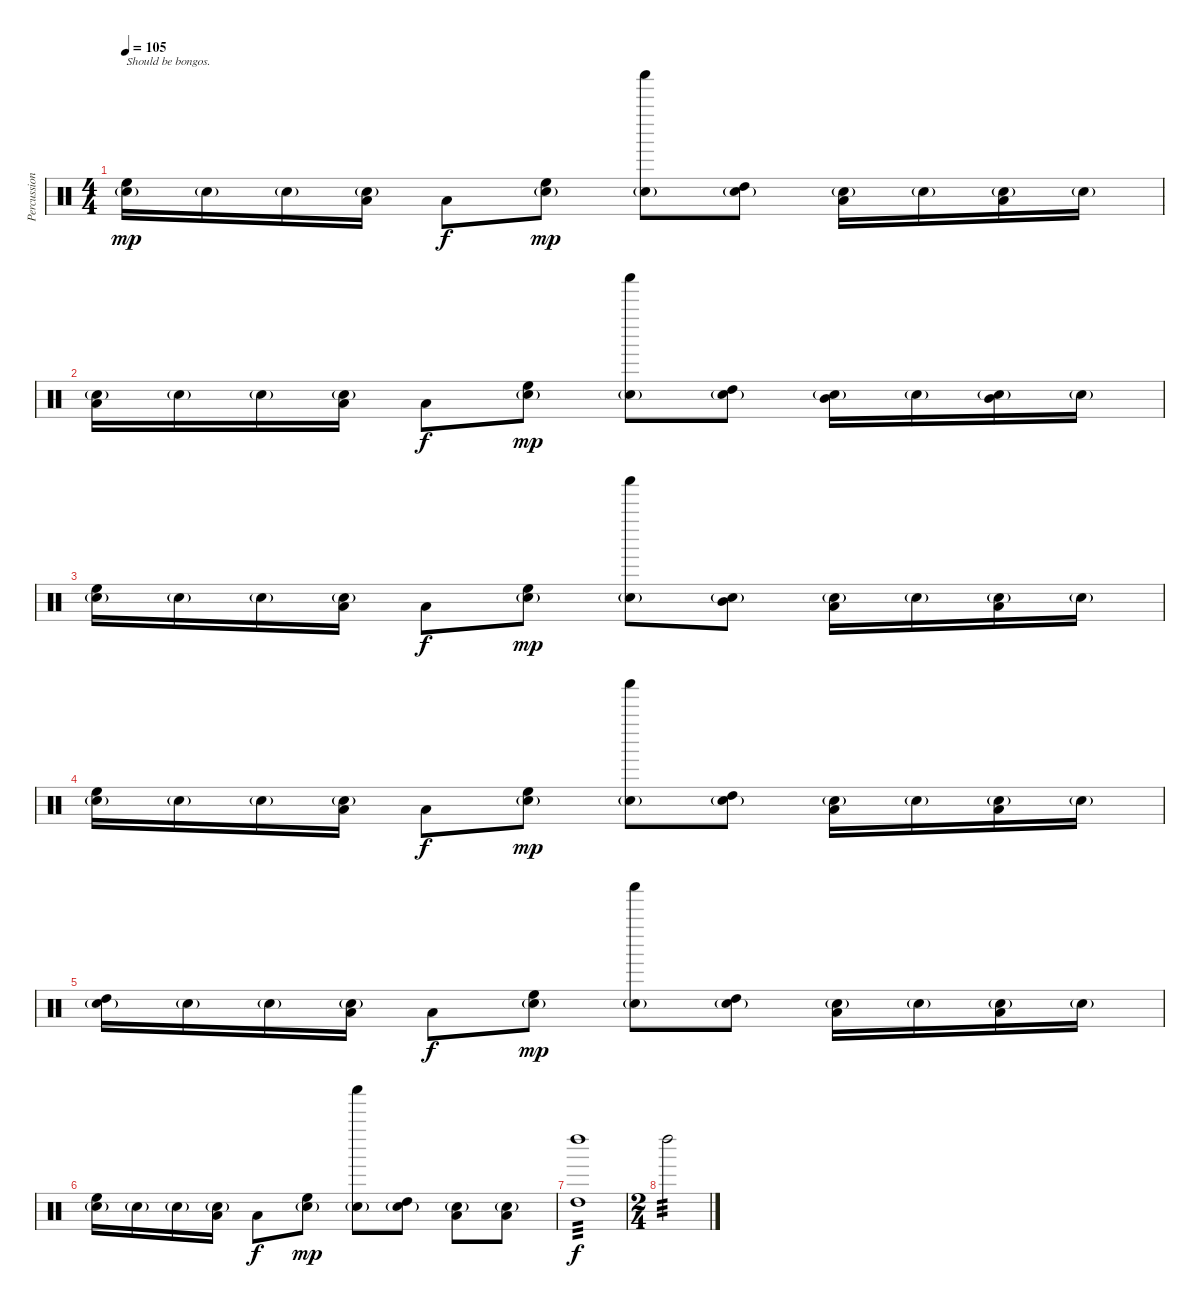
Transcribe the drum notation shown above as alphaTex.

\track ("Percussion" "Percussion") {instrument percussion}
\staff {score}
\articulation defaults
\ts (4 4)
\tempo 105
\clef neutral
\ks c
("Electric Snare (hit)"{g} "High Floor Tom (hit)").16{txt "Should be bongos." dy mp} "Electric Snare (hit)"{g}.16 "Electric Snare (hit)"{g}.16 ("Electric Snare (hit)"{g} "Low Tom (hit)").16 "Low Tom (hit)".8{dy f} ("Electric Snare (hit)"{g} "High Floor Tom (hit)").8{dy mp} ("Electric Snare (hit)"{g} "Shaker (hit)").8 ("Electric Snare (hit)"{g} "High Tom (hit)").8 ("Electric Snare (hit)"{g} "Low Tom (hit)").16 "Electric Snare (hit)"{g}.16 ("Electric Snare (hit)"{g} "Low Tom (hit)").16 "Electric Snare (hit)"{g}.16 |
("Electric Snare (hit)"{g} "Low Tom (hit)").16 "Electric Snare (hit)"{g}.16 "Electric Snare (hit)"{g}.16 ("Electric Snare (hit)"{g} "Low Tom (hit)").16 "Low Tom (hit)".8{dy f} ("Electric Snare (hit)"{g} "High Floor Tom (hit)").8{dy mp} ("Electric Snare (hit)"{g} "Shaker (hit)").8 ("Electric Snare (hit)"{g} "High Tom (hit)").8 ("Electric Snare (hit)"{g} "Mid Tom (hit)").16 "Electric Snare (hit)"{g}.16 ("Electric Snare (hit)"{g} "Mid Tom (hit)").16 "Electric Snare (hit)"{g}.16 |
("Electric Snare (hit)"{g} "High Floor Tom (hit)").16 "Electric Snare (hit)"{g}.16 "Electric Snare (hit)"{g}.16 ("Electric Snare (hit)"{g} "Low Tom (hit)").16 "Low Tom (hit)".8{dy f} ("Electric Snare (hit)"{g} "High Floor Tom (hit)").8{dy mp} ("Electric Snare (hit)"{g} "Shaker (hit)").8 ("Electric Snare (hit)"{g} "Mid Tom (hit)").8 ("Electric Snare (hit)"{g} "Low Tom (hit)").16 "Electric Snare (hit)"{g}.16 ("Electric Snare (hit)"{g} "Low Tom (hit)").16 "Electric Snare (hit)"{g}.16 |
("Electric Snare (hit)"{g} "High Floor Tom (hit)").16 "Electric Snare (hit)"{g}.16 "Electric Snare (hit)"{g}.16 ("Electric Snare (hit)"{g} "Low Tom (hit)").16 "Low Tom (hit)".8{dy f} ("Electric Snare (hit)"{g} "High Floor Tom (hit)").8{dy mp} ("Electric Snare (hit)"{g} "Shaker (hit)").8 ("Electric Snare (hit)"{g} "High Tom (hit)").8 ("Electric Snare (hit)"{g} "Low Tom (hit)").16 "Electric Snare (hit)"{g}.16 ("Electric Snare (hit)"{g} "Low Tom (hit)").16 "Electric Snare (hit)"{g}.16 |
("Electric Snare (hit)"{g} "High Tom (hit)").16 "Electric Snare (hit)"{g}.16 "Electric Snare (hit)"{g}.16 ("Electric Snare (hit)"{g} "Low Tom (hit)").16 "Low Tom (hit)".8{dy f} ("Electric Snare (hit)"{g} "High Floor Tom (hit)").8{dy mp} ("Electric Snare (hit)"{g} "Shaker (hit)").8 ("Electric Snare (hit)"{g} "High Tom (hit)").8 ("Electric Snare (hit)"{g} "Low Tom (hit)").16 "Electric Snare (hit)"{g}.16 ("Electric Snare (hit)"{g} "Low Tom (hit)").16 "Electric Snare (hit)"{g}.16 |
("Electric Snare (hit)"{g} "High Floor Tom (hit)").16 "Electric Snare (hit)"{g}.16 "Electric Snare (hit)"{g}.16 ("Electric Snare (hit)"{g} "Low Tom (hit)").16 "Low Tom (hit)".8{dy f} ("Electric Snare (hit)"{g} "High Floor Tom (hit)").8{dy mp} ("Electric Snare (hit)"{g} "Shaker (hit)").8 ("Electric Snare (hit)"{g} "High Tom (hit)").8 ("Electric Snare (hit)"{g} "Low Tom (hit)").8 ("Electric Snare (hit)"{g} "Low Tom (hit)").8 |
("Left Maraca (hit)" "High Tom (hit)").1{tp 3 dy f volume 0} |
\ts (2 4)
"Left Maraca (hit)".2{tp 3}
